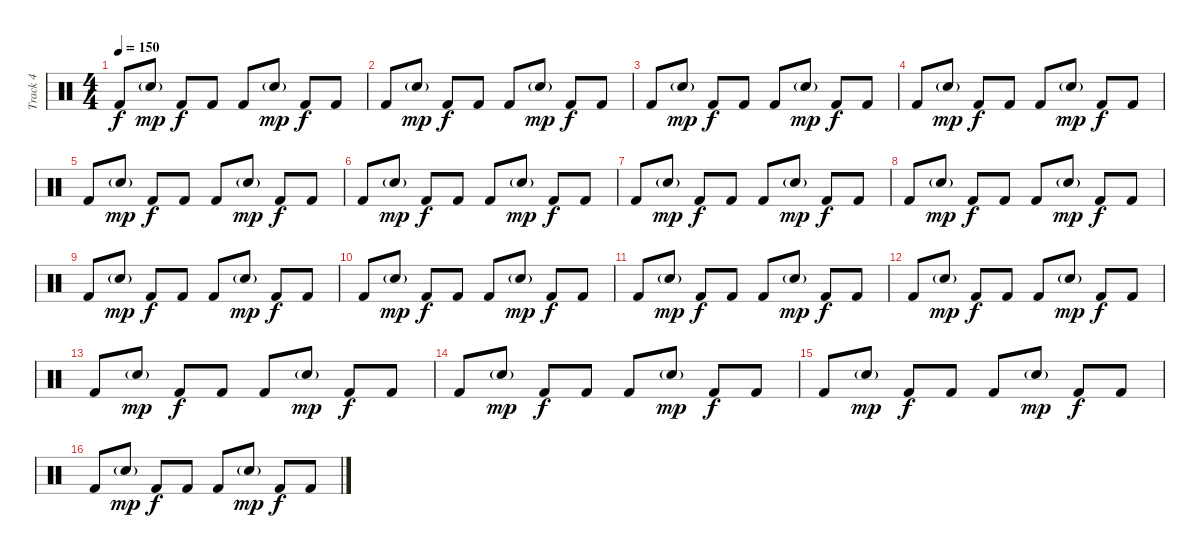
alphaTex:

\track ("Track 4" "Track 4") {instrument percussion}
\staff {score}
\articulation defaults
\ts (4 4)
\tempo 150
\clef neutral
\ks c "Kick (hit) 2".8{dy f} "Snare (hit) 2"{g}.8{dy mp} "Kick (hit) 2".8{dy f} "Kick (hit) 2".8 "Kick (hit) 2".8 "Snare (hit) 2"{g}.8{dy mp} "Kick (hit) 2".8{dy f} "Kick (hit) 2".8
|
"Kick (hit) 2".8 "Snare (hit) 2"{g}.8{dy mp} "Kick (hit) 2".8{dy f} "Kick (hit) 2".8 "Kick (hit) 2".8 "Snare (hit) 2"{g}.8{dy mp} "Kick (hit) 2".8{dy f} "Kick (hit) 2".8 |
"Kick (hit) 2".8 "Snare (hit) 2"{g}.8{dy mp} "Kick (hit) 2".8{dy f} "Kick (hit) 2".8 "Kick (hit) 2".8 "Snare (hit) 2"{g}.8{dy mp} "Kick (hit) 2".8{dy f} "Kick (hit) 2".8 |
"Kick (hit) 2".8 "Snare (hit) 2"{g}.8{dy mp} "Kick (hit) 2".8{dy f} "Kick (hit) 2".8 "Kick (hit) 2".8 "Snare (hit) 2"{g}.8{dy mp} "Kick (hit) 2".8{dy f} "Kick (hit) 2".8 |
"Kick (hit) 2".8 "Snare (hit) 2"{g}.8{dy mp} "Kick (hit) 2".8{dy f} "Kick (hit) 2".8 "Kick (hit) 2".8 "Snare (hit) 2"{g}.8{dy mp} "Kick (hit) 2".8{dy f} "Kick (hit) 2".8 |
"Kick (hit) 2".8 "Snare (hit) 2"{g}.8{dy mp} "Kick (hit) 2".8{dy f} "Kick (hit) 2".8 "Kick (hit) 2".8 "Snare (hit) 2"{g}.8{dy mp} "Kick (hit) 2".8{dy f} "Kick (hit) 2".8 |
"Kick (hit) 2".8 "Snare (hit) 2"{g}.8{dy mp} "Kick (hit) 2".8{dy f} "Kick (hit) 2".8 "Kick (hit) 2".8 "Snare (hit) 2"{g}.8{dy mp} "Kick (hit) 2".8{dy f} "Kick (hit) 2".8 |
"Kick (hit) 2".8 "Snare (hit) 2"{g}.8{dy mp} "Kick (hit) 2".8{dy f} "Kick (hit) 2".8 "Kick (hit) 2".8 "Snare (hit) 2"{g}.8{dy mp} "Kick (hit) 2".8{dy f} "Kick (hit) 2".8 |
"Kick (hit) 2".8 "Snare (hit) 2"{g}.8{dy mp} "Kick (hit) 2".8{dy f} "Kick (hit) 2".8 "Kick (hit) 2".8 "Snare (hit) 2"{g}.8{dy mp} "Kick (hit) 2".8{dy f} "Kick (hit) 2".8 |
"Kick (hit) 2".8 "Snare (hit) 2"{g}.8{dy mp} "Kick (hit) 2".8{dy f} "Kick (hit) 2".8 "Kick (hit) 2".8 "Snare (hit) 2"{g}.8{dy mp} "Kick (hit) 2".8{dy f} "Kick (hit) 2".8 |
"Kick (hit) 2".8 "Snare (hit) 2"{g}.8{dy mp} "Kick (hit) 2".8{dy f} "Kick (hit) 2".8 "Kick (hit) 2".8 "Snare (hit) 2"{g}.8{dy mp} "Kick (hit) 2".8{dy f} "Kick (hit) 2".8 |
"Kick (hit) 2".8 "Snare (hit) 2"{g}.8{dy mp} "Kick (hit) 2".8{dy f} "Kick (hit) 2".8 "Kick (hit) 2".8 "Snare (hit) 2"{g}.8{dy mp} "Kick (hit) 2".8{dy f} "Kick (hit) 2".8 |
"Kick (hit) 2".8 "Snare (hit) 2"{g}.8{dy mp} "Kick (hit) 2".8{dy f} "Kick (hit) 2".8 "Kick (hit) 2".8 "Snare (hit) 2"{g}.8{dy mp} "Kick (hit) 2".8{dy f} "Kick (hit) 2".8 |
"Kick (hit) 2".8 "Snare (hit) 2"{g}.8{dy mp} "Kick (hit) 2".8{dy f} "Kick (hit) 2".8 "Kick (hit) 2".8 "Snare (hit) 2"{g}.8{dy mp} "Kick (hit) 2".8{dy f} "Kick (hit) 2".8 |
"Kick (hit) 2".8 "Snare (hit) 2"{g}.8{dy mp} "Kick (hit) 2".8{dy f} "Kick (hit) 2".8 "Kick (hit) 2".8 "Snare (hit) 2"{g}.8{dy mp} "Kick (hit) 2".8{dy f} "Kick (hit) 2".8 |
"Kick (hit) 2".8 "Snare (hit) 2"{g}.8{dy mp} "Kick (hit) 2".8{dy f} "Kick (hit) 2".8 "Kick (hit) 2".8 "Snare (hit) 2"{g}.8{dy mp} "Kick (hit) 2".8{dy f} "Kick (hit) 2".8
